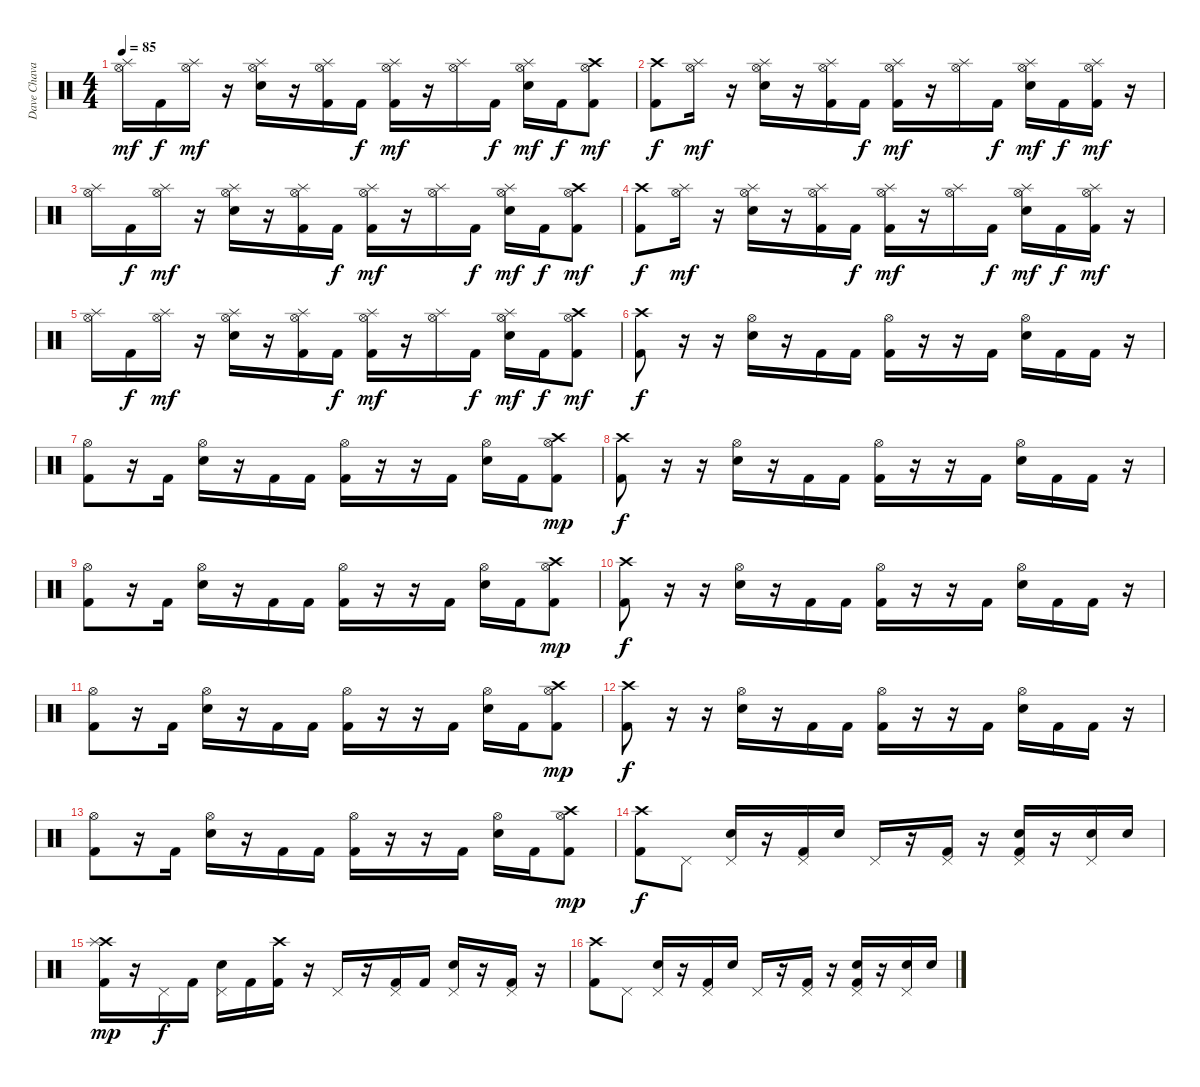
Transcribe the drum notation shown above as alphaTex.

\track ("Dave Chavarri" "Dave Chava") {instrument percussion}
\staff {score}
\articulation defaults
\ts (4 4)
\tempo 85
\clef neutral
\ks c
("Hi-Hat (open)" "Splash (hit)").16{dy mf} "Kick (hit) 2".16{dy f} ("Hi-Hat (open)" "Splash (hit)").16{dy mf} r.16 ("Hi-Hat (open)" "Splash (hit)" "Snare (hit) 2").16 r.16 ("Hi-Hat (open)" "Splash (hit)" "Kick (hit) 2").16 "Kick (hit) 2".16{dy f} ("Hi-Hat (open)" "Splash (hit)" "Kick (hit) 2").16{dy mf} r.16 ("Hi-Hat (open)" "Splash (hit)").16 "Kick (hit) 2".16{dy f} ("Hi-Hat (open)" "Splash (hit)" "Snare (hit) 2").16{dy mf} "Kick (hit) 2".16{dy f} ("Hi-Hat (open)" "Crash high (hit)" "Kick (hit) 2").8{dy mf} |
("Crash high (hit)" "Kick (hit) 2").8{dy f} ("Hi-Hat (open)" "Splash (hit)").16{dy mf} r.16 ("Hi-Hat (open)" "Splash (hit)" "Snare (hit) 2").16 r.16 ("Hi-Hat (open)" "Splash (hit)" "Kick (hit) 2").16 "Kick (hit) 2".16{dy f} ("Hi-Hat (open)" "Splash (hit)" "Kick (hit) 2").16{dy mf} r.16 ("Hi-Hat (open)" "Splash (hit)").16 "Kick (hit) 2".16{dy f} ("Hi-Hat (open)" "Splash (hit)" "Snare (hit) 2").16{dy mf} "Kick (hit) 2".16{dy f} ("Hi-Hat (open)" "Splash (hit)" "Kick (hit) 2").16{dy mf} r.16 |
("Hi-Hat (open)" "Splash (hit)").16 "Kick (hit) 2".16{dy f} ("Hi-Hat (open)" "Splash (hit)").16{dy mf} r.16 ("Hi-Hat (open)" "Splash (hit)" "Snare (hit) 2").16 r.16 ("Hi-Hat (open)" "Splash (hit)" "Kick (hit) 2").16 "Kick (hit) 2".16{dy f} ("Hi-Hat (open)" "Splash (hit)" "Kick (hit) 2").16{dy mf} r.16 ("Hi-Hat (open)" "Splash (hit)").16 "Kick (hit) 2".16{dy f} ("Hi-Hat (open)" "Splash (hit)" "Snare (hit) 2").16{dy mf} "Kick (hit) 2".16{dy f} ("Hi-Hat (open)" "Crash high (hit)" "Kick (hit) 2").8{dy mf} |
("Crash high (hit)" "Kick (hit) 2").8{dy f} ("Hi-Hat (open)" "Splash (hit)").16{dy mf} r.16 ("Hi-Hat (open)" "Splash (hit)" "Snare (hit) 2").16 r.16 ("Hi-Hat (open)" "Splash (hit)" "Kick (hit) 2").16 "Kick (hit) 2".16{dy f} ("Hi-Hat (open)" "Splash (hit)" "Kick (hit) 2").16{dy mf} r.16 ("Hi-Hat (open)" "Splash (hit)").16 "Kick (hit) 2".16{dy f} ("Hi-Hat (open)" "Splash (hit)" "Snare (hit) 2").16{dy mf} "Kick (hit) 2".16{dy f} ("Hi-Hat (open)" "Splash (hit)" "Kick (hit) 2").16{dy mf} r.16 |
("Hi-Hat (open)" "Splash (hit)").16 "Kick (hit) 2".16{dy f} ("Hi-Hat (open)" "Splash (hit)").16{dy mf} r.16 ("Hi-Hat (open)" "Splash (hit)" "Snare (hit) 2").16 r.16 ("Hi-Hat (open)" "Splash (hit)" "Kick (hit) 2").16 "Kick (hit) 2".16{dy f} ("Hi-Hat (open)" "Splash (hit)" "Kick (hit) 2").16{dy mf} r.16 ("Hi-Hat (open)" "Splash (hit)").16 "Kick (hit) 2".16{dy f} ("Hi-Hat (open)" "Splash (hit)" "Snare (hit) 2").16{dy mf} "Kick (hit) 2".16{dy f} ("Hi-Hat (open)" "Crash high (hit)" "Kick (hit) 2").8{dy mf} |
("Crash high (hit)" "Kick (hit) 2").8{dy f} r.16 r.16 ("Hi-Hat (open)" "Snare (hit) 2").16 r.16 "Kick (hit) 2".16 "Kick (hit) 2".16 ("Hi-Hat (open)" "Kick (hit) 2").16 r.16 r.16 "Kick (hit) 2".16 ("Hi-Hat (open)" "Snare (hit) 2").16 "Kick (hit) 2".16 "Kick (hit) 2".16 r.16 |
("Hi-Hat (open)" "Kick (hit) 2").8 r.16 "Kick (hit) 2".16 ("Hi-Hat (open)" "Snare (hit) 2").16 r.16 "Kick (hit) 2".16 "Kick (hit) 2".16 ("Hi-Hat (open)" "Kick (hit) 2").16 r.16 r.16 "Kick (hit) 2".16 ("Hi-Hat (open)" "Snare (hit) 2").16 "Kick (hit) 2".16 ("Crash high (hit)" "Hi-Hat (open)" "Kick (hit) 2").8{dy mp} |
("Crash high (hit)" "Kick (hit) 2").8{dy f} r.16 r.16 ("Hi-Hat (open)" "Snare (hit) 2").16 r.16 "Kick (hit) 2".16 "Kick (hit) 2".16 ("Hi-Hat (open)" "Kick (hit) 2").16 r.16 r.16 "Kick (hit) 2".16 ("Hi-Hat (open)" "Snare (hit) 2").16 "Kick (hit) 2".16 "Kick (hit) 2".16 r.16 |
("Hi-Hat (open)" "Kick (hit) 2").8 r.16 "Kick (hit) 2".16 ("Hi-Hat (open)" "Snare (hit) 2").16 r.16 "Kick (hit) 2".16 "Kick (hit) 2".16 ("Hi-Hat (open)" "Kick (hit) 2").16 r.16 r.16 "Kick (hit) 2".16 ("Hi-Hat (open)" "Snare (hit) 2").16 "Kick (hit) 2".16 ("Crash high (hit)" "Hi-Hat (open)" "Kick (hit) 2").8{dy mp} |
("Crash high (hit)" "Kick (hit) 2").8{dy f} r.16 r.16 ("Hi-Hat (open)" "Snare (hit) 2").16 r.16 "Kick (hit) 2".16 "Kick (hit) 2".16 ("Hi-Hat (open)" "Kick (hit) 2").16 r.16 r.16 "Kick (hit) 2".16 ("Hi-Hat (open)" "Snare (hit) 2").16 "Kick (hit) 2".16 "Kick (hit) 2".16 r.16 |
("Hi-Hat (open)" "Kick (hit) 2").8 r.16 "Kick (hit) 2".16 ("Hi-Hat (open)" "Snare (hit) 2").16 r.16 "Kick (hit) 2".16 "Kick (hit) 2".16 ("Hi-Hat (open)" "Kick (hit) 2").16 r.16 r.16 "Kick (hit) 2".16 ("Hi-Hat (open)" "Snare (hit) 2").16 "Kick (hit) 2".16 ("Crash high (hit)" "Hi-Hat (open)" "Kick (hit) 2").8{dy mp} |
("Crash high (hit)" "Kick (hit) 2").8{dy f} r.16 r.16 ("Hi-Hat (open)" "Snare (hit) 2").16 r.16 "Kick (hit) 2".16 "Kick (hit) 2".16 ("Hi-Hat (open)" "Kick (hit) 2").16 r.16 r.16 "Kick (hit) 2".16 ("Hi-Hat (open)" "Snare (hit) 2").16 "Kick (hit) 2".16 "Kick (hit) 2".16 r.16 |
("Hi-Hat (open)" "Kick (hit) 2").8 r.16 "Kick (hit) 2".16 ("Hi-Hat (open)" "Snare (hit) 2").16 r.16 "Kick (hit) 2".16 "Kick (hit) 2".16 ("Hi-Hat (open)" "Kick (hit) 2").16 r.16 r.16 "Kick (hit) 2".16 ("Hi-Hat (open)" "Snare (hit) 2").16 "Kick (hit) 2".16 ("Crash high (hit)" "Hi-Hat (open)" "Kick (hit) 2").8{dy mp} |
("Crash high (hit)" "Kick (hit) 2").8{dy f} "Pedal Hi-Hat (hit)".8 ("Pedal Hi-Hat (hit)" "Snare (hit) 2").16 r.16 ("Pedal Hi-Hat (hit)" "Kick (hit) 2").16 "Snare (hit) 2".16 "Pedal Hi-Hat (hit)".16 r.16 ("Pedal Hi-Hat (hit)" "Kick (hit) 2").16 r.16 ("Pedal Hi-Hat (hit)" "Snare (hit) 2" "Kick (hit) 2").16 r.16 ("Pedal Hi-Hat (hit)" "Snare (hit) 2").16 "Snare (hit) 2".16 |
("Crash high (hit)" "Splash (hit)" "Kick (hit) 2").16{dy mp} r.16 "Pedal Hi-Hat (hit)".16{dy f} "Kick (hit) 2".16 ("Pedal Hi-Hat (hit)" "Snare (hit) 2").16 "Kick (hit) 2".16 ("Crash high (hit)" "Kick (hit) 2").16 r.16 "Pedal Hi-Hat (hit)".16 r.16 ("Pedal Hi-Hat (hit)" "Kick (hit) 2").16 "Kick (hit) 2".16 ("Pedal Hi-Hat (hit)" "Snare (hit) 2").16 r.16 ("Pedal Hi-Hat (hit)" "Kick (hit) 2").16 r.16 |
("Crash high (hit)" "Kick (hit) 2").8 "Pedal Hi-Hat (hit)".8 ("Pedal Hi-Hat (hit)" "Snare (hit) 2").16 r.16 ("Pedal Hi-Hat (hit)" "Kick (hit) 2").16 "Snare (hit) 2".16 "Pedal Hi-Hat (hit)".16 r.16 ("Pedal Hi-Hat (hit)" "Kick (hit) 2").16 r.16 ("Pedal Hi-Hat (hit)" "Snare (hit) 2" "Kick (hit) 2").16 r.16 ("Pedal Hi-Hat (hit)" "Snare (hit) 2").16 "Snare (hit) 2".16
